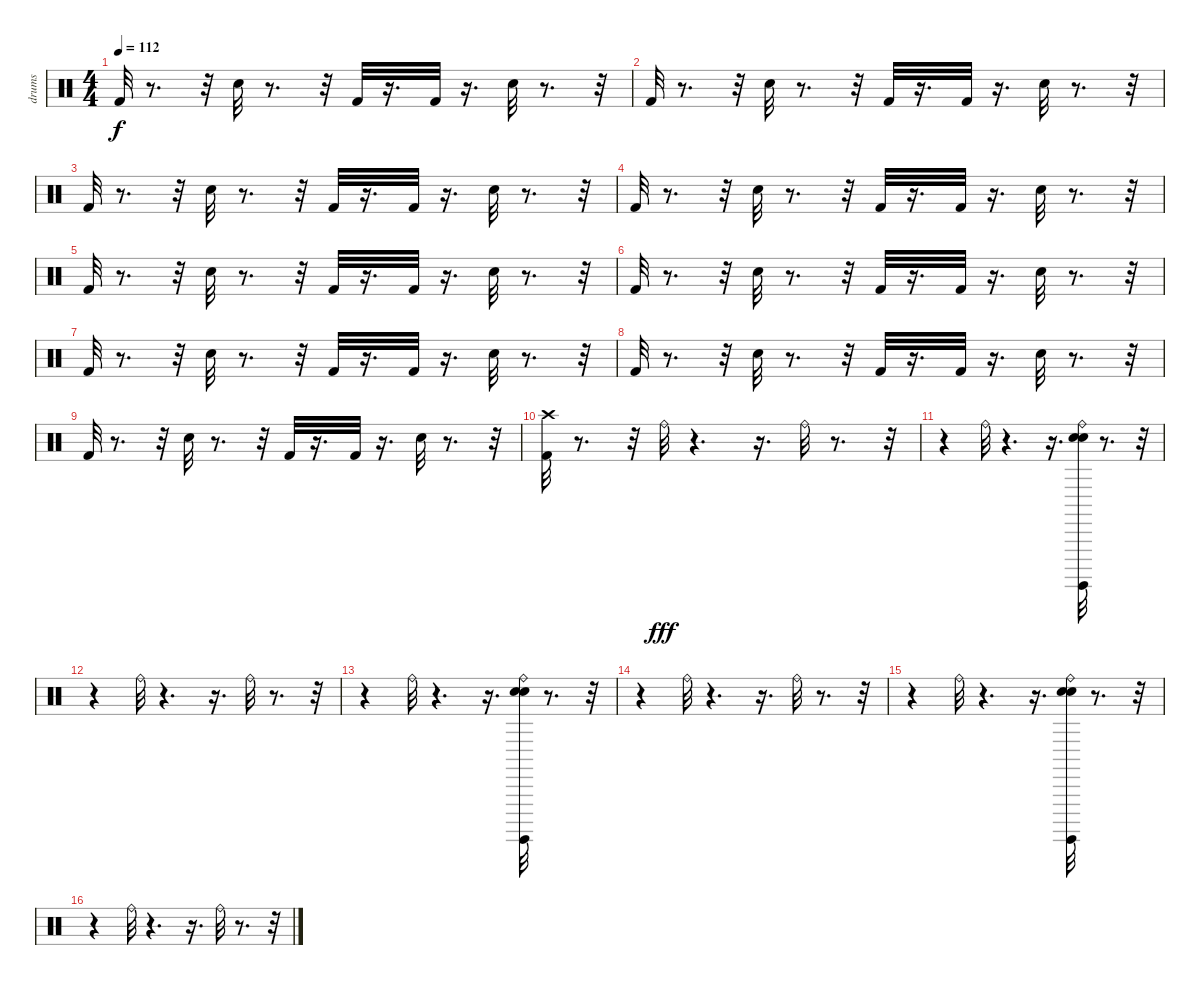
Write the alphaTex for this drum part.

\track ("drums" "drums") {instrument percussion}
\staff {score}
\articulation defaults
\ts (4 4)
\tempo 112
\clef neutral
\ks c "Kick (hit) 2".32{dy f}
r.8{d} r.32 "Snare (hit) 2".32 r.8{d} r.32 "Kick (hit) 2".32 r.16{d} "Kick (hit) 2".32 r.16{d} "Snare (hit) 2".32 r.8{d} r.32 |
"Kick (hit) 2".32 r.8{d} r.32 "Snare (hit) 2".32 r.8{d} r.32 "Kick (hit) 2".32 r.16{d} "Kick (hit) 2".32 r.16{d} "Snare (hit) 2".32 r.8{d} r.32 |
"Kick (hit) 2".32 r.8{d} r.32 "Snare (hit) 2".32 r.8{d} r.32 "Kick (hit) 2".32 r.16{d} "Kick (hit) 2".32 r.16{d} "Snare (hit) 2".32 r.8{d} r.32 |
"Kick (hit) 2".32 r.8{d} r.32 "Snare (hit) 2".32 r.8{d} r.32 "Kick (hit) 2".32 r.16{d} "Kick (hit) 2".32 r.16{d} "Snare (hit) 2".32 r.8{d} r.32 |
"Kick (hit) 2".32 r.8{d} r.32 "Snare (hit) 2".32 r.8{d} r.32 "Kick (hit) 2".32 r.16{d} "Kick (hit) 2".32 r.16{d} "Snare (hit) 2".32 r.8{d} r.32 |
"Kick (hit) 2".32 r.8{d} r.32 "Snare (hit) 2".32 r.8{d} r.32 "Kick (hit) 2".32 r.16{d} "Kick (hit) 2".32 r.16{d} "Snare (hit) 2".32 r.8{d} r.32 |
"Kick (hit) 2".32 r.8{d} r.32 "Snare (hit) 2".32 r.8{d} r.32 "Kick (hit) 2".32 r.16{d} "Kick (hit) 2".32 r.16{d} "Snare (hit) 2".32 r.8{d} r.32 |
"Kick (hit) 2".32 r.8{d} r.32 "Snare (hit) 2".32 r.8{d} r.32 "Kick (hit) 2".32 r.16{d} "Kick (hit) 2".32 r.16{d} "Snare (hit) 2".32 r.8{d} r.32 |
"Kick (hit) 2".32 r.8{d} r.32 "Snare (hit) 2".32 r.8{d} r.32 "Kick (hit) 2".32 r.16{d} "Kick (hit) 2".32 r.16{d} "Snare (hit) 2".32 r.8{d} r.32 |
("Kick (hit) 2" "Crash high (hit)").32 r.8{d} r.32 "Ride (bell)".32{dy fff} r.4{d} r.16{d} "Ride (bell)".32 r.8{d} r.32 |
r.4 "Ride (bell)".32 r.4{d} r.16{d} ("Surdo (hit)" "Ride (bell)" "Electric Snare (hit)" "Snare (hit) 2").32 r.8{d} r.32 |
r.4 "Ride (bell)".32 r.4{d} r.16{d} "Ride (bell)".32 r.8{d} r.32 |
r.4 "Ride (bell)".32 r.4{d} r.16{d} ("Ride (bell)" "Surdo (hit)" "Electric Snare (hit)" "Snare (hit) 2").32 r.8{d} r.32 |
r.4 "Ride (bell)".32 r.4{d} r.16{d} "Ride (bell)".32 r.8{d} r.32 |
r.4 "Ride (bell)".32 r.4{d} r.16{d} ("Ride (bell)" "Snare (hit) 2" "Electric Snare (hit)" "Surdo (hit)").32 r.8{d} r.32 |
r.4 "Ride (bell)".32 r.4{d} r.16{d} "Ride (bell)".32 r.8{d} r.32
